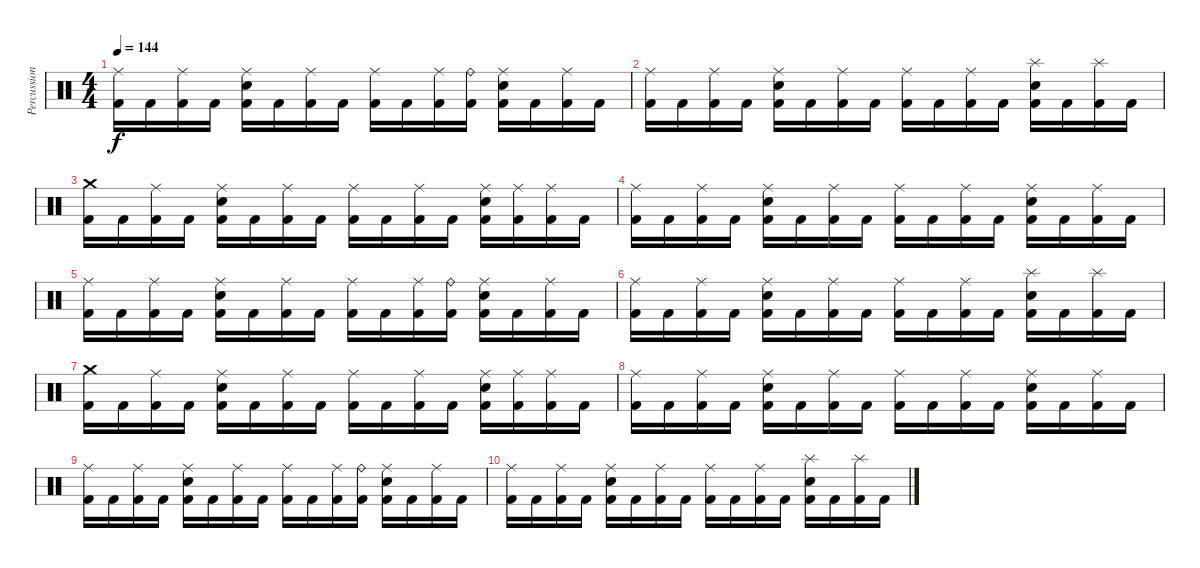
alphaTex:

\track ("Percussion" "Percussion") {instrument percussion}
\staff {score}
\articulation defaults
\ts (4 4)
\tempo 144
\clef neutral
\ks c
("Ride (middle)" "Kick (hit) 2").16{dy f} "Kick (hit) 2".16 ("Ride (middle)" "Kick (hit) 2").16 "Kick (hit) 2".16 ("Ride (middle)" "Electric Snare (hit)" "Kick (hit) 2").16 "Kick (hit) 2".16 ("Ride (middle)" "Kick (hit) 2").16 "Kick (hit) 2".16 ("Ride (middle)" "Kick (hit) 2").16 "Kick (hit) 2".16 ("Ride (middle)" "Kick (hit) 2").16 ("Ride (bell)" "Kick (hit) 2").16 ("Ride (middle)" "Electric Snare (hit)" "Kick (hit) 2").16 "Kick (hit) 2".16 ("Ride (middle)" "Kick (hit) 2").16 "Kick (hit) 2".16 |
("Ride (middle)" "Kick (hit) 2").16 "Kick (hit) 2".16 ("Ride (middle)" "Kick (hit) 2").16 "Kick (hit) 2".16 ("Ride (middle)" "Electric Snare (hit)" "Kick (hit) 2").16 "Kick (hit) 2".16 ("Ride (middle)" "Kick (hit) 2").16 "Kick (hit) 2".16 ("Ride (middle)" "Kick (hit) 2").16 "Kick (hit) 2".16 ("Ride (middle)" "Kick (hit) 2").16 "Kick (hit) 2".16 ("Splash (hit)" "Electric Snare (hit)" "Kick (hit) 2").16 "Kick (hit) 2".16 ("Splash (hit)" "Kick (hit) 2").16 "Kick (hit) 2".16 |
("Crash medium (hit)" "Kick (hit) 2").16 "Kick (hit) 2".16 ("Ride (middle)" "Kick (hit) 2").16 "Kick (hit) 2".16 ("Ride (middle)" "Electric Snare (hit)" "Kick (hit) 2").16 "Kick (hit) 2".16 ("Ride (middle)" "Kick (hit) 2").16 "Kick (hit) 2".16 ("Ride (middle)" "Kick (hit) 2").16 "Kick (hit) 2".16 ("Ride (middle)" "Kick (hit) 2").16 "Kick (hit) 2".16 ("Ride (middle)" "Electric Snare (hit)" "Kick (hit) 2").16 ("Ride (middle)" "Kick (hit) 2").16 ("Ride (middle)" "Kick (hit) 2").16 "Kick (hit) 2".16 |
("Ride (middle)" "Kick (hit) 2").16 "Kick (hit) 2".16 ("Ride (middle)" "Kick (hit) 2").16 "Kick (hit) 2".16 ("Ride (middle)" "Electric Snare (hit)" "Kick (hit) 2").16 "Kick (hit) 2".16 ("Ride (middle)" "Kick (hit) 2").16 "Kick (hit) 2".16 ("Ride (middle)" "Kick (hit) 2").16 "Kick (hit) 2".16 ("Ride (middle)" "Kick (hit) 2").16 "Kick (hit) 2".16 ("Ride (middle)" "Electric Snare (hit)" "Kick (hit) 2").16 "Kick (hit) 2".16 ("Ride (middle)" "Kick (hit) 2").16 "Kick (hit) 2".16 |
("Ride (middle)" "Kick (hit) 2").16 "Kick (hit) 2".16 ("Ride (middle)" "Kick (hit) 2").16 "Kick (hit) 2".16 ("Ride (middle)" "Electric Snare (hit)" "Kick (hit) 2").16 "Kick (hit) 2".16 ("Ride (middle)" "Kick (hit) 2").16 "Kick (hit) 2".16 ("Ride (middle)" "Kick (hit) 2").16 "Kick (hit) 2".16 ("Ride (middle)" "Kick (hit) 2").16 ("Ride (bell)" "Kick (hit) 2").16 ("Ride (middle)" "Electric Snare (hit)" "Kick (hit) 2").16 "Kick (hit) 2".16 ("Ride (middle)" "Kick (hit) 2").16 "Kick (hit) 2".16 |
("Ride (middle)" "Kick (hit) 2").16 "Kick (hit) 2".16 ("Ride (middle)" "Kick (hit) 2").16 "Kick (hit) 2".16 ("Ride (middle)" "Electric Snare (hit)" "Kick (hit) 2").16 "Kick (hit) 2".16 ("Ride (middle)" "Kick (hit) 2").16 "Kick (hit) 2".16 ("Ride (middle)" "Kick (hit) 2").16 "Kick (hit) 2".16 ("Ride (middle)" "Kick (hit) 2").16 "Kick (hit) 2".16 ("Splash (hit)" "Electric Snare (hit)" "Kick (hit) 2").16 "Kick (hit) 2".16 ("Splash (hit)" "Kick (hit) 2").16 "Kick (hit) 2".16 |
("Crash medium (hit)" "Kick (hit) 2").16 "Kick (hit) 2".16 ("Ride (middle)" "Kick (hit) 2").16 "Kick (hit) 2".16 ("Ride (middle)" "Electric Snare (hit)" "Kick (hit) 2").16 "Kick (hit) 2".16 ("Ride (middle)" "Kick (hit) 2").16 "Kick (hit) 2".16 ("Ride (middle)" "Kick (hit) 2").16 "Kick (hit) 2".16 ("Ride (middle)" "Kick (hit) 2").16 "Kick (hit) 2".16 ("Ride (middle)" "Electric Snare (hit)" "Kick (hit) 2").16 ("Ride (middle)" "Kick (hit) 2").16 ("Ride (middle)" "Kick (hit) 2").16 "Kick (hit) 2".16 |
("Ride (middle)" "Kick (hit) 2").16 "Kick (hit) 2".16 ("Ride (middle)" "Kick (hit) 2").16 "Kick (hit) 2".16 ("Ride (middle)" "Electric Snare (hit)" "Kick (hit) 2").16 "Kick (hit) 2".16 ("Ride (middle)" "Kick (hit) 2").16 "Kick (hit) 2".16 ("Ride (middle)" "Kick (hit) 2").16 "Kick (hit) 2".16 ("Ride (middle)" "Kick (hit) 2").16 "Kick (hit) 2".16 ("Ride (middle)" "Electric Snare (hit)" "Kick (hit) 2").16 "Kick (hit) 2".16 ("Ride (middle)" "Kick (hit) 2").16 "Kick (hit) 2".16 |
("Ride (middle)" "Kick (hit) 2").16 "Kick (hit) 2".16 ("Ride (middle)" "Kick (hit) 2").16 "Kick (hit) 2".16 ("Ride (middle)" "Electric Snare (hit)" "Kick (hit) 2").16 "Kick (hit) 2".16 ("Ride (middle)" "Kick (hit) 2").16 "Kick (hit) 2".16 ("Ride (middle)" "Kick (hit) 2").16 "Kick (hit) 2".16 ("Ride (middle)" "Kick (hit) 2").16 ("Ride (bell)" "Kick (hit) 2").16 ("Ride (middle)" "Electric Snare (hit)" "Kick (hit) 2").16 "Kick (hit) 2".16 ("Ride (middle)" "Kick (hit) 2").16 "Kick (hit) 2".16 |
("Ride (middle)" "Kick (hit) 2").16 "Kick (hit) 2".16 ("Ride (middle)" "Kick (hit) 2").16 "Kick (hit) 2".16 ("Ride (middle)" "Electric Snare (hit)" "Kick (hit) 2").16 "Kick (hit) 2".16 ("Ride (middle)" "Kick (hit) 2").16 "Kick (hit) 2".16 ("Ride (middle)" "Kick (hit) 2").16 "Kick (hit) 2".16 ("Ride (middle)" "Kick (hit) 2").16 "Kick (hit) 2".16 ("Splash (hit)" "Electric Snare (hit)" "Kick (hit) 2").16 "Kick (hit) 2".16 ("Splash (hit)" "Kick (hit) 2").16 "Kick (hit) 2".16
